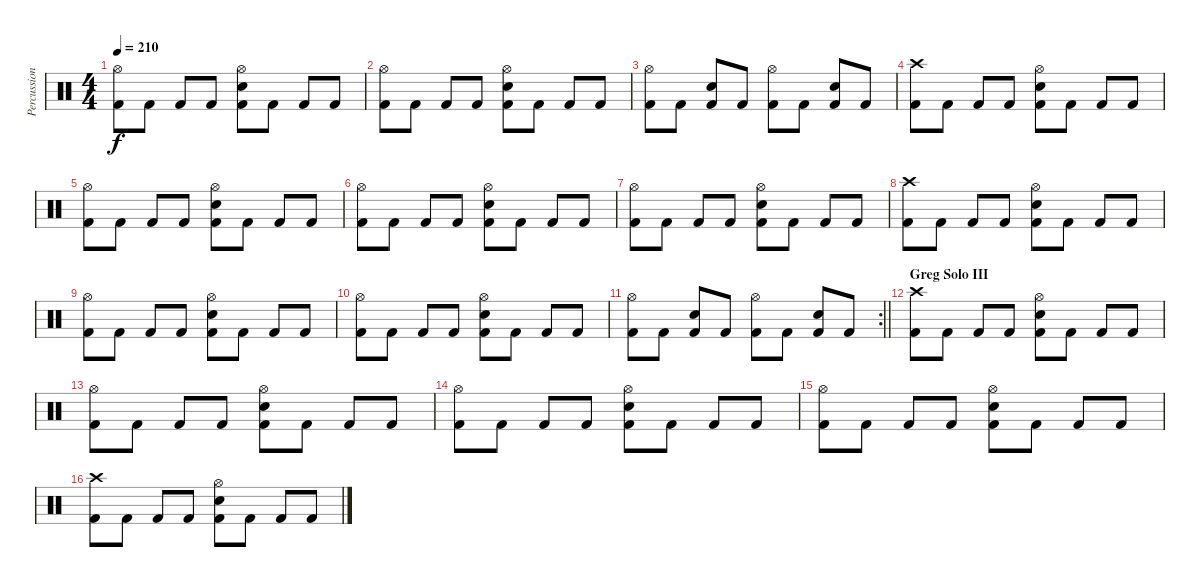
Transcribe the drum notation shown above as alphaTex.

\track ("Percussion" "Percussion") {instrument percussion}
\staff {score}
\articulation defaults
\ts (4 4)
\tempo 210
\clef neutral
\ks c
("Hi-Hat (open)" "Kick (hit) 2").8{dy f} "Kick (hit) 2".8 "Kick (hit) 2".8 "Kick (hit) 2".8 ("Hi-Hat (open)" "Snare (hit) 2" "Kick (hit) 2").8 "Kick (hit) 2".8 "Kick (hit) 2".8 "Kick (hit) 2".8 |
("Hi-Hat (open)" "Kick (hit) 2").8 "Kick (hit) 2".8 "Kick (hit) 2".8 "Kick (hit) 2".8 ("Hi-Hat (open)" "Snare (hit) 2" "Kick (hit) 2").8 "Kick (hit) 2".8 "Kick (hit) 2".8 "Kick (hit) 2".8 |
("Hi-Hat (open)" "Kick (hit) 2").8 "Kick (hit) 2".8 ("Snare (hit) 2" "Kick (hit) 2").8 "Kick (hit) 2".8 ("Hi-Hat (open)" "Kick (hit) 2").8 "Kick (hit) 2".8 ("Snare (hit) 2" "Kick (hit) 2").8 "Kick (hit) 2".8 |
("Crash high (hit)" "Kick (hit) 2").8 "Kick (hit) 2".8 "Kick (hit) 2".8 "Kick (hit) 2".8 ("Hi-Hat (open)" "Snare (hit) 2" "Kick (hit) 2").8 "Kick (hit) 2".8 "Kick (hit) 2".8 "Kick (hit) 2".8 |
("Hi-Hat (open)" "Kick (hit) 2").8 "Kick (hit) 2".8 "Kick (hit) 2".8 "Kick (hit) 2".8 ("Hi-Hat (open)" "Snare (hit) 2" "Kick (hit) 2").8 "Kick (hit) 2".8 "Kick (hit) 2".8 "Kick (hit) 2".8 |
("Hi-Hat (open)" "Kick (hit) 2").8 "Kick (hit) 2".8 "Kick (hit) 2".8 "Kick (hit) 2".8 ("Hi-Hat (open)" "Snare (hit) 2" "Kick (hit) 2").8 "Kick (hit) 2".8 "Kick (hit) 2".8 "Kick (hit) 2".8 |
("Hi-Hat (open)" "Kick (hit) 2").8 "Kick (hit) 2".8 "Kick (hit) 2".8 "Kick (hit) 2".8 ("Hi-Hat (open)" "Snare (hit) 2" "Kick (hit) 2").8 "Kick (hit) 2".8 "Kick (hit) 2".8 "Kick (hit) 2".8 |
("Crash high (hit)" "Kick (hit) 2").8 "Kick (hit) 2".8 "Kick (hit) 2".8 "Kick (hit) 2".8 ("Hi-Hat (open)" "Snare (hit) 2" "Kick (hit) 2").8 "Kick (hit) 2".8 "Kick (hit) 2".8 "Kick (hit) 2".8 |
("Hi-Hat (open)" "Kick (hit) 2").8 "Kick (hit) 2".8 "Kick (hit) 2".8 "Kick (hit) 2".8 ("Hi-Hat (open)" "Snare (hit) 2" "Kick (hit) 2").8 "Kick (hit) 2".8 "Kick (hit) 2".8 "Kick (hit) 2".8 |
("Hi-Hat (open)" "Kick (hit) 2").8 "Kick (hit) 2".8 "Kick (hit) 2".8 "Kick (hit) 2".8 ("Hi-Hat (open)" "Snare (hit) 2" "Kick (hit) 2").8 "Kick (hit) 2".8 "Kick (hit) 2".8 "Kick (hit) 2".8 |
\rc 2
\barLineRight lightlight
("Hi-Hat (open)" "Kick (hit) 2").8 "Kick (hit) 2".8 ("Snare (hit) 2" "Kick (hit) 2").8 "Kick (hit) 2".8 ("Hi-Hat (open)" "Kick (hit) 2").8 "Kick (hit) 2".8 ("Snare (hit) 2" "Kick (hit) 2").8 "Kick (hit) 2".8 |
\section ("" "Greg Solo III")
("Crash high (hit)" "Kick (hit) 2").8 "Kick (hit) 2".8 "Kick (hit) 2".8 "Kick (hit) 2".8 ("Hi-Hat (open)" "Snare (hit) 2" "Kick (hit) 2").8 "Kick (hit) 2".8 "Kick (hit) 2".8 "Kick (hit) 2".8 |
("Hi-Hat (open)" "Kick (hit) 2").8 "Kick (hit) 2".8 "Kick (hit) 2".8 "Kick (hit) 2".8 ("Hi-Hat (open)" "Snare (hit) 2" "Kick (hit) 2").8 "Kick (hit) 2".8 "Kick (hit) 2".8 "Kick (hit) 2".8 |
("Hi-Hat (open)" "Kick (hit) 2").8 "Kick (hit) 2".8 "Kick (hit) 2".8 "Kick (hit) 2".8 ("Hi-Hat (open)" "Snare (hit) 2" "Kick (hit) 2").8 "Kick (hit) 2".8 "Kick (hit) 2".8 "Kick (hit) 2".8 |
("Hi-Hat (open)" "Kick (hit) 2").8 "Kick (hit) 2".8 "Kick (hit) 2".8 "Kick (hit) 2".8 ("Hi-Hat (open)" "Snare (hit) 2" "Kick (hit) 2").8 "Kick (hit) 2".8 "Kick (hit) 2".8 "Kick (hit) 2".8 |
("Crash high (hit)" "Kick (hit) 2").8 "Kick (hit) 2".8 "Kick (hit) 2".8 "Kick (hit) 2".8 ("Hi-Hat (open)" "Snare (hit) 2" "Kick (hit) 2").8 "Kick (hit) 2".8 "Kick (hit) 2".8 "Kick (hit) 2".8
